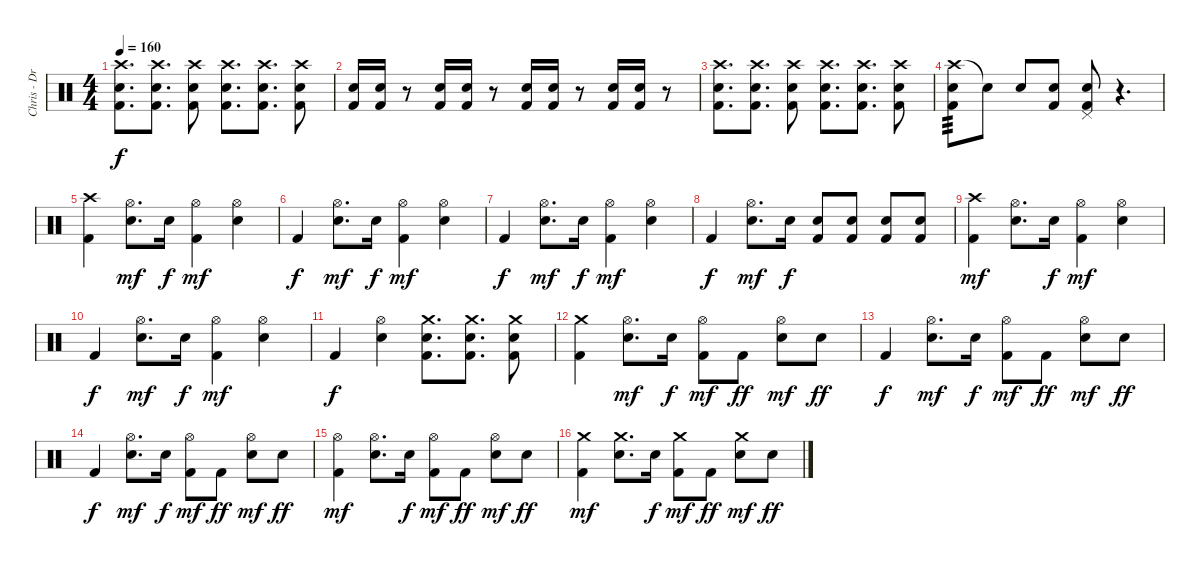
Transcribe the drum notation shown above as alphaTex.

\track ("Chris - Drums" "Chris - Dr") {instrument percussion}
\staff {score}
\articulation defaults
\ts (4 4)
\tempo 160
\clef neutral
\ks c
("Crash high (hit)" "Electric Snare (hit)" "Kick (hit) 2").8{d dy f} ("Crash high (hit)" "Electric Snare (hit)" "Kick (hit) 2").8{d} ("Crash high (hit)" "Electric Snare (hit)" "Kick (hit) 2").8 ("Crash high (hit)" "Electric Snare (hit)" "Kick (hit) 2").8{d} ("Crash high (hit)" "Electric Snare (hit)" "Kick (hit) 2").8{d} ("Crash high (hit)" "Electric Snare (hit)" "Kick (hit) 2").8 |
("Electric Snare (hit)" "Kick (hit) 2").16 ("Electric Snare (hit)" "Kick (hit) 2").16 r.8 ("Electric Snare (hit)" "Kick (hit) 2").16 ("Electric Snare (hit)" "Kick (hit) 2").16 r.8 ("Electric Snare (hit)" "Kick (hit) 2").16 ("Electric Snare (hit)" "Kick (hit) 2").16 r.8 ("Electric Snare (hit)" "Kick (hit) 2").16 ("Electric Snare (hit)" "Kick (hit) 2").16 r.8 |
("Crash high (hit)" "Electric Snare (hit)" "Kick (hit) 2").8{d} ("Crash high (hit)" "Electric Snare (hit)" "Kick (hit) 2").8{d} ("Crash high (hit)" "Electric Snare (hit)" "Kick (hit) 2").8 ("Crash high (hit)" "Electric Snare (hit)" "Kick (hit) 2").8{d} ("Crash high (hit)" "Electric Snare (hit)" "Kick (hit) 2").8{d} ("Crash high (hit)" "Electric Snare (hit)" "Kick (hit) 2").8 |
("Crash high (hit)" "Electric Snare (hit)" "Kick (hit) 2").8{tp 3} "Snare (hit)"{t}.8 "Electric Snare (hit)".8 ("Electric Snare (hit)" "Kick (hit) 2").8 ("Pedal Hi-Hat (hit)" "Electric Snare (hit)" "Kick (hit) 2").8 r.4{d} |
("Crash high (hit)" "Kick (hit) 2").4 ("Hi-Hat (open)" "Electric Snare (hit)").8{d dy mf} "Electric Snare (hit)".16{dy f} ("Hi-Hat (open)" "Kick (hit) 2").4{dy mf} ("Hi-Hat (open)" "Electric Snare (hit)").4 |
"Kick (hit) 2".4{dy f} ("Hi-Hat (open)" "Electric Snare (hit)").8{d dy mf} "Electric Snare (hit)".16{dy f} ("Hi-Hat (open)" "Kick (hit) 2").4{dy mf} ("Hi-Hat (open)" "Electric Snare (hit)").4 |
"Kick (hit) 2".4{dy f} ("Hi-Hat (open)" "Electric Snare (hit)").8{d dy mf} "Electric Snare (hit)".16{dy f} ("Hi-Hat (open)" "Kick (hit) 2").4{dy mf} ("Hi-Hat (open)" "Electric Snare (hit)").4 |
"Kick (hit) 2".4{dy f} ("Hi-Hat (open)" "Electric Snare (hit)").8{d dy mf} "Electric Snare (hit)".16{dy f} ("Electric Snare (hit)" "Kick (hit) 2").8 ("Electric Snare (hit)" "Kick (hit) 2").8 ("Electric Snare (hit)" "Kick (hit) 2").8 ("Electric Snare (hit)" "Kick (hit) 2").8 |
("Crash high (hit)" "Kick (hit) 2").4{dy mf} ("Hi-Hat (open)" "Electric Snare (hit)").8{d} "Electric Snare (hit)".16{dy f} ("Hi-Hat (open)" "Kick (hit) 2").4{dy mf} ("Hi-Hat (open)" "Electric Snare (hit)").4 |
"Kick (hit) 2".4{dy f} ("Hi-Hat (open)" "Electric Snare (hit)").8{d dy mf} "Electric Snare (hit)".16{dy f} ("Hi-Hat (open)" "Kick (hit) 2").4{dy mf} ("Hi-Hat (open)" "Electric Snare (hit)").4 |
"Kick (hit) 2".4{dy f} ("Hi-Hat (open)" "Electric Snare (hit)").4 ("Crash medium (hit)" "Electric Snare (hit)" "Kick (hit) 2").8{d} ("Crash medium (hit)" "Electric Snare (hit)" "Kick (hit) 2").8{d} ("Crash medium (hit)" "Electric Snare (hit)" "Kick (hit) 2").8 |
("Crash medium (hit)" "Kick (hit) 2").4 ("Hi-Hat (open)" "Electric Snare (hit)").8{d dy mf} "Electric Snare (hit)".16{dy f} ("Hi-Hat (open)" "Kick (hit) 2").8{dy mf} "Kick (hit) 2".8{dy ff} ("Hi-Hat (open)" "Electric Snare (hit)").8{dy mf} "Electric Snare (hit)".8{dy ff} |
"Kick (hit) 2".4{dy f} ("Hi-Hat (open)" "Electric Snare (hit)").8{d dy mf} "Electric Snare (hit)".16{dy f} ("Hi-Hat (open)" "Kick (hit) 2").8{dy mf} "Kick (hit) 2".8{dy ff} ("Hi-Hat (open)" "Electric Snare (hit)").8{dy mf} "Electric Snare (hit)".8{dy ff} |
"Kick (hit) 2".4{dy f} ("Hi-Hat (open)" "Electric Snare (hit)").8{d dy mf} "Electric Snare (hit)".16{dy f} ("Hi-Hat (open)" "Kick (hit) 2").8{dy mf} "Kick (hit) 2".8{dy ff} ("Hi-Hat (open)" "Electric Snare (hit)").8{dy mf} "Electric Snare (hit)".8{dy ff} |
("Hi-Hat (open)" "Kick (hit) 2").4{dy mf} ("Hi-Hat (open)" "Electric Snare (hit)").8{d} "Electric Snare (hit)".16{dy f} ("Hi-Hat (open)" "Kick (hit) 2").8{dy mf} "Kick (hit) 2".8{dy ff} ("Hi-Hat (open)" "Electric Snare (hit)").8{dy mf} "Electric Snare (hit)".8{dy ff} |
("Crash medium (hit)" "Kick (hit) 2").4{dy mf} ("Crash medium (hit)" "Electric Snare (hit)").8{d} "Electric Snare (hit)".16{dy f} ("Crash medium (hit)" "Kick (hit) 2").8{dy mf} "Kick (hit) 2".8{dy ff} ("Crash medium (hit)" "Electric Snare (hit)").8{dy mf} "Electric Snare (hit)".8{dy ff}
